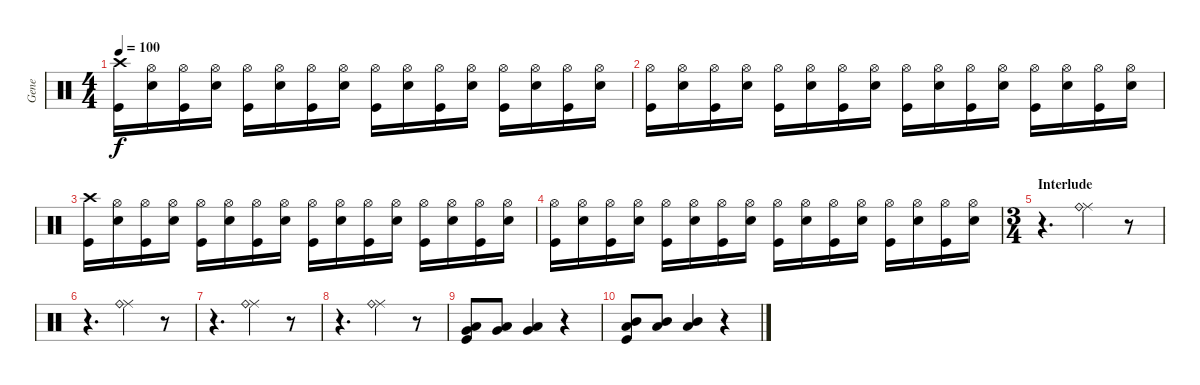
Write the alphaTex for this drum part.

\track ("Gene" "Gene") {instrument percussion}
\staff {score}
\articulation defaults
\ts (4 4)
\tempo 100
\clef neutral
\ks c
("Crash high (hit)" "Kick (hit)").16{dy f} ("Hi-Hat (open)" "Snare (hit) 2").16 ("Hi-Hat (open)" "Kick (hit)").16 ("Hi-Hat (open)" "Snare (hit) 2").16 ("Hi-Hat (open)" "Kick (hit)").16 ("Hi-Hat (open)" "Snare (hit) 2").16 ("Hi-Hat (open)" "Kick (hit)").16 ("Hi-Hat (open)" "Snare (hit) 2").16 ("Hi-Hat (open)" "Kick (hit)").16 ("Hi-Hat (open)" "Snare (hit) 2").16 ("Hi-Hat (open)" "Kick (hit)").16 ("Hi-Hat (open)" "Snare (hit) 2").16 ("Hi-Hat (open)" "Kick (hit)").16 ("Hi-Hat (open)" "Snare (hit) 2").16 ("Hi-Hat (open)" "Kick (hit)").16 ("Hi-Hat (open)" "Snare (hit) 2").16 |
("Hi-Hat (open)" "Kick (hit)").16 ("Hi-Hat (open)" "Snare (hit) 2").16 ("Hi-Hat (open)" "Kick (hit)").16 ("Hi-Hat (open)" "Snare (hit) 2").16 ("Hi-Hat (open)" "Kick (hit)").16 ("Hi-Hat (open)" "Snare (hit) 2").16 ("Hi-Hat (open)" "Kick (hit)").16 ("Hi-Hat (open)" "Snare (hit) 2").16 ("Hi-Hat (open)" "Kick (hit)").16 ("Hi-Hat (open)" "Snare (hit) 2").16 ("Hi-Hat (open)" "Kick (hit)").16 ("Hi-Hat (open)" "Snare (hit) 2").16 ("Hi-Hat (open)" "Kick (hit)").16 ("Hi-Hat (open)" "Snare (hit) 2").16 ("Hi-Hat (open)" "Kick (hit)").16 ("Hi-Hat (open)" "Snare (hit) 2").16 |
("Crash high (hit)" "Kick (hit)").16 ("Hi-Hat (open)" "Snare (hit) 2").16 ("Hi-Hat (open)" "Kick (hit)").16 ("Hi-Hat (open)" "Snare (hit) 2").16 ("Hi-Hat (open)" "Kick (hit)").16 ("Hi-Hat (open)" "Snare (hit) 2").16 ("Hi-Hat (open)" "Kick (hit)").16 ("Hi-Hat (open)" "Snare (hit) 2").16 ("Hi-Hat (open)" "Kick (hit)").16 ("Hi-Hat (open)" "Snare (hit) 2").16 ("Hi-Hat (open)" "Kick (hit)").16 ("Hi-Hat (open)" "Snare (hit) 2").16 ("Hi-Hat (open)" "Kick (hit)").16 ("Hi-Hat (open)" "Snare (hit) 2").16 ("Hi-Hat (open)" "Kick (hit)").16 ("Hi-Hat (open)" "Snare (hit) 2").16 |
("Hi-Hat (open)" "Kick (hit)").16 ("Hi-Hat (open)" "Snare (hit) 2").16 ("Hi-Hat (open)" "Kick (hit)").16 ("Hi-Hat (open)" "Snare (hit) 2").16 ("Hi-Hat (open)" "Kick (hit)").16 ("Hi-Hat (open)" "Snare (hit) 2").16 ("Hi-Hat (open)" "Kick (hit)").16 ("Hi-Hat (open)" "Snare (hit) 2").16 ("Hi-Hat (open)" "Kick (hit)").16 ("Hi-Hat (open)" "Snare (hit) 2").16 ("Hi-Hat (open)" "Kick (hit)").16 ("Hi-Hat (open)" "Snare (hit) 2").16 ("Hi-Hat (open)" "Kick (hit)").16 ("Hi-Hat (open)" "Snare (hit) 2").16 ("Hi-Hat (open)" "Kick (hit)").16 ("Hi-Hat (open)" "Snare (hit) 2").16 |
\ts (3 4)
\section ("" "Interlude")
r.4{d} ("Ride (middle)" "Ride (bell)").4 r.8 |
r.4{d} ("Ride (middle)" "Ride (bell)").4 r.8 |
r.4{d} ("Ride (middle)" "Ride (bell)").4 r.8 |
r.4{d} ("Ride (middle)" "Ride (bell)").4 r.8 |
("Low Tom (hit)" "Very Low Tom (hit)" "Kick (hit)").8 ("Low Tom (hit)" "Very Low Tom (hit)").8 ("Low Tom (hit)" "Very Low Tom (hit)").4 r.4 |
("Mid Tom (hit)" "Low Tom (hit)" "Kick (hit)").8 ("Mid Tom (hit)" "Low Tom (hit)").8 ("Mid Tom (hit)" "Low Tom (hit)").4 r.4
